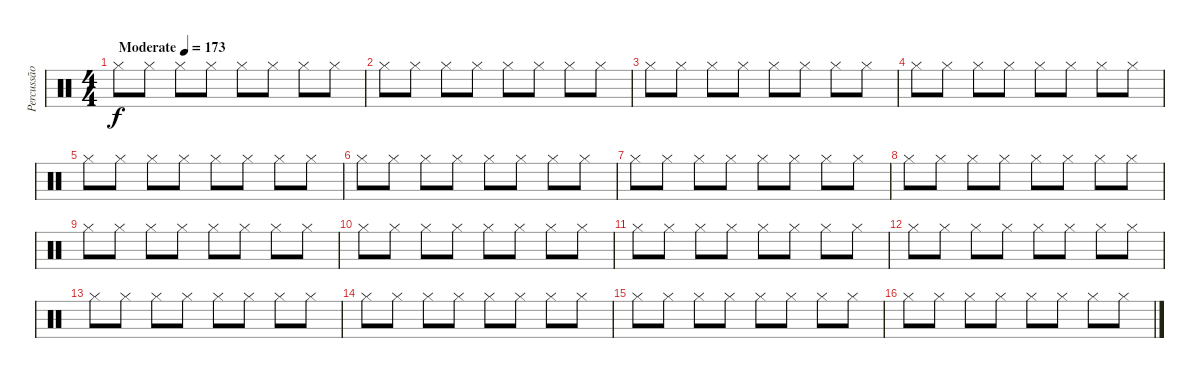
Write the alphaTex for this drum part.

\track ("Percussão" "Percussão") {instrument percussion}
\staff {score}
\articulation defaults
\ts (4 4)
\tempo (173 "Moderate")
\clef neutral
\ks c "Hi-Hat (closed)".8{dy f} "Hi-Hat (closed)".8 "Hi-Hat (closed)".8 "Hi-Hat (closed)".8 "Hi-Hat (closed)".8 "Hi-Hat (closed)".8 "Hi-Hat (closed)".8 "Hi-Hat (closed)".8
|
"Hi-Hat (closed)".8 "Hi-Hat (closed)".8 "Hi-Hat (closed)".8 "Hi-Hat (closed)".8 "Hi-Hat (closed)".8 "Hi-Hat (closed)".8 "Hi-Hat (closed)".8 "Hi-Hat (closed)".8 |
"Hi-Hat (closed)".8 "Hi-Hat (closed)".8 "Hi-Hat (closed)".8 "Hi-Hat (closed)".8 "Hi-Hat (closed)".8 "Hi-Hat (closed)".8 "Hi-Hat (closed)".8 "Hi-Hat (closed)".8 |
"Hi-Hat (closed)".8 "Hi-Hat (closed)".8 "Hi-Hat (closed)".8 "Hi-Hat (closed)".8 "Hi-Hat (closed)".8 "Hi-Hat (closed)".8 "Hi-Hat (closed)".8 "Hi-Hat (closed)".8 |
"Hi-Hat (closed)".8 "Hi-Hat (closed)".8 "Hi-Hat (closed)".8 "Hi-Hat (closed)".8 "Hi-Hat (closed)".8 "Hi-Hat (closed)".8 "Hi-Hat (closed)".8 "Hi-Hat (closed)".8 |
"Hi-Hat (closed)".8 "Hi-Hat (closed)".8 "Hi-Hat (closed)".8 "Hi-Hat (closed)".8 "Hi-Hat (closed)".8 "Hi-Hat (closed)".8 "Hi-Hat (closed)".8 "Hi-Hat (closed)".8 |
"Hi-Hat (closed)".8 "Hi-Hat (closed)".8 "Hi-Hat (closed)".8 "Hi-Hat (closed)".8 "Hi-Hat (closed)".8 "Hi-Hat (closed)".8 "Hi-Hat (closed)".8 "Hi-Hat (closed)".8 |
"Hi-Hat (closed)".8 "Hi-Hat (closed)".8 "Hi-Hat (closed)".8 "Hi-Hat (closed)".8 "Hi-Hat (closed)".8 "Hi-Hat (closed)".8 "Hi-Hat (closed)".8 "Hi-Hat (closed)".8 |
"Hi-Hat (closed)".8 "Hi-Hat (closed)".8 "Hi-Hat (closed)".8 "Hi-Hat (closed)".8 "Hi-Hat (closed)".8 "Hi-Hat (closed)".8 "Hi-Hat (closed)".8 "Hi-Hat (closed)".8 |
"Hi-Hat (closed)".8 "Hi-Hat (closed)".8 "Hi-Hat (closed)".8 "Hi-Hat (closed)".8 "Hi-Hat (closed)".8 "Hi-Hat (closed)".8 "Hi-Hat (closed)".8 "Hi-Hat (closed)".8 |
"Hi-Hat (closed)".8 "Hi-Hat (closed)".8 "Hi-Hat (closed)".8 "Hi-Hat (closed)".8 "Hi-Hat (closed)".8 "Hi-Hat (closed)".8 "Hi-Hat (closed)".8 "Hi-Hat (closed)".8 |
"Hi-Hat (closed)".8 "Hi-Hat (closed)".8 "Hi-Hat (closed)".8 "Hi-Hat (closed)".8 "Hi-Hat (closed)".8 "Hi-Hat (closed)".8 "Hi-Hat (closed)".8 "Hi-Hat (closed)".8 |
"Hi-Hat (closed)".8 "Hi-Hat (closed)".8 "Hi-Hat (closed)".8 "Hi-Hat (closed)".8 "Hi-Hat (closed)".8 "Hi-Hat (closed)".8 "Hi-Hat (closed)".8 "Hi-Hat (closed)".8 |
"Hi-Hat (closed)".8 "Hi-Hat (closed)".8 "Hi-Hat (closed)".8 "Hi-Hat (closed)".8 "Hi-Hat (closed)".8 "Hi-Hat (closed)".8 "Hi-Hat (closed)".8 "Hi-Hat (closed)".8 |
"Hi-Hat (closed)".8 "Hi-Hat (closed)".8 "Hi-Hat (closed)".8 "Hi-Hat (closed)".8 "Hi-Hat (closed)".8 "Hi-Hat (closed)".8 "Hi-Hat (closed)".8 "Hi-Hat (closed)".8 |
"Hi-Hat (closed)".8 "Hi-Hat (closed)".8 "Hi-Hat (closed)".8 "Hi-Hat (closed)".8 "Hi-Hat (closed)".8 "Hi-Hat (closed)".8 "Hi-Hat (closed)".8 "Hi-Hat (closed)".8
